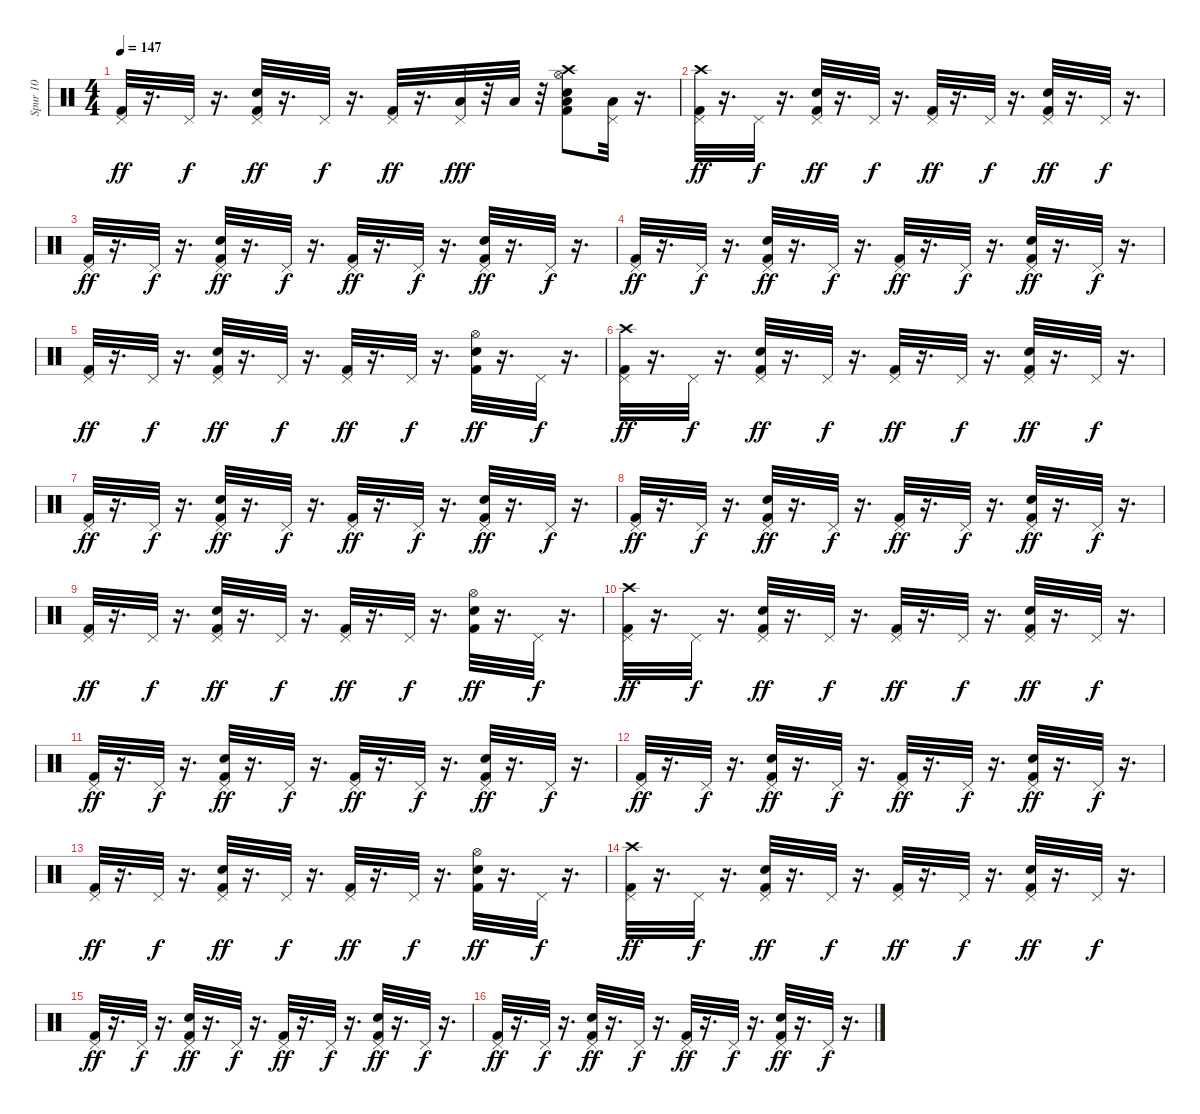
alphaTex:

\track ("Spur 10" "Spur 10") {instrument percussion}
\staff {score}
\articulation defaults
\ts (4 4)
\tempo 147
\clef neutral
\ks c
("Pedal Hi-Hat (hit)" "Kick (hit) 2").32{dy ff} r.16{d} "Pedal Hi-Hat (hit)".32{dy f} r.16{d} ("Snare (hit) 2" "Kick (hit) 2" "Pedal Hi-Hat (hit)").32{dy ff} r.16{d} "Pedal Hi-Hat (hit)".32{dy f} r.16{d} ("Kick (hit) 2" "Pedal Hi-Hat (hit)").32{dy ff} r.16{d} ("Low Tom (hit)" "Pedal Hi-Hat (hit)").32{dy fff} r.32 "Low Tom (hit)".32 r.32 ("Low Tom (hit)" "Snare (hit) 2" "Hi-Hat (open)" "Kick (hit) 2" "Crash high (hit)").8 ("Low Floor Tom (hit)" "Pedal Hi-Hat (hit)").32 r.16{d} |
("Pedal Hi-Hat (hit)" "Kick (hit) 2" "Crash high (hit)").32{dy ff} r.16{d} "Pedal Hi-Hat (hit)".32{dy f} r.16{d} ("Snare (hit) 2" "Kick (hit) 2" "Pedal Hi-Hat (hit)").32{dy ff} r.16{d} "Pedal Hi-Hat (hit)".32{dy f} r.16{d} ("Kick (hit) 2" "Pedal Hi-Hat (hit)").32{dy ff} r.16{d} "Pedal Hi-Hat (hit)".32{dy f} r.16{d} ("Snare (hit) 2" "Pedal Hi-Hat (hit)" "Kick (hit) 2").32{dy ff} r.16{d} "Pedal Hi-Hat (hit)".32{dy f} r.16{d} |
("Pedal Hi-Hat (hit)" "Kick (hit) 2").32{dy ff} r.16{d} "Pedal Hi-Hat (hit)".32{dy f} r.16{d} ("Snare (hit) 2" "Kick (hit) 2" "Pedal Hi-Hat (hit)").32{dy ff} r.16{d} "Pedal Hi-Hat (hit)".32{dy f} r.16{d} ("Kick (hit) 2" "Pedal Hi-Hat (hit)").32{dy ff} r.16{d} "Pedal Hi-Hat (hit)".32{dy f} r.16{d} ("Snare (hit) 2" "Pedal Hi-Hat (hit)" "Kick (hit) 2").32{dy ff} r.16{d} "Pedal Hi-Hat (hit)".32{dy f} r.16{d} |
("Pedal Hi-Hat (hit)" "Kick (hit) 2").32{dy ff} r.16{d} "Pedal Hi-Hat (hit)".32{dy f} r.16{d} ("Snare (hit) 2" "Kick (hit) 2" "Pedal Hi-Hat (hit)").32{dy ff} r.16{d} "Pedal Hi-Hat (hit)".32{dy f} r.16{d} ("Kick (hit) 2" "Pedal Hi-Hat (hit)").32{dy ff} r.16{d} "Pedal Hi-Hat (hit)".32{dy f} r.16{d} ("Snare (hit) 2" "Pedal Hi-Hat (hit)" "Kick (hit) 2").32{dy ff} r.16{d} "Pedal Hi-Hat (hit)".32{dy f} r.16{d} |
("Pedal Hi-Hat (hit)" "Kick (hit) 2").32{dy ff} r.16{d} "Pedal Hi-Hat (hit)".32{dy f} r.16{d} ("Snare (hit) 2" "Kick (hit) 2" "Pedal Hi-Hat (hit)").32{dy ff} r.16{d} "Pedal Hi-Hat (hit)".32{dy f} r.16{d} ("Kick (hit) 2" "Pedal Hi-Hat (hit)").32{dy ff} r.16{d} "Pedal Hi-Hat (hit)".32{dy f} r.16{d} ("Snare (hit) 2" "Hi-Hat (open)" "Kick (hit) 2").32{dy ff} r.16{d} "Pedal Hi-Hat (hit)".32{dy f} r.16{d} |
("Pedal Hi-Hat (hit)" "Kick (hit) 2" "Crash high (hit)").32{dy ff} r.16{d} "Pedal Hi-Hat (hit)".32{dy f} r.16{d} ("Snare (hit) 2" "Kick (hit) 2" "Pedal Hi-Hat (hit)").32{dy ff} r.16{d} "Pedal Hi-Hat (hit)".32{dy f} r.16{d} ("Kick (hit) 2" "Pedal Hi-Hat (hit)").32{dy ff} r.16{d} "Pedal Hi-Hat (hit)".32{dy f} r.16{d} ("Snare (hit) 2" "Pedal Hi-Hat (hit)" "Kick (hit) 2").32{dy ff} r.16{d} "Pedal Hi-Hat (hit)".32{dy f} r.16{d} |
("Pedal Hi-Hat (hit)" "Kick (hit) 2").32{dy ff} r.16{d} "Pedal Hi-Hat (hit)".32{dy f} r.16{d} ("Snare (hit) 2" "Kick (hit) 2" "Pedal Hi-Hat (hit)").32{dy ff} r.16{d} "Pedal Hi-Hat (hit)".32{dy f} r.16{d} ("Kick (hit) 2" "Pedal Hi-Hat (hit)").32{dy ff} r.16{d} "Pedal Hi-Hat (hit)".32{dy f} r.16{d} ("Snare (hit) 2" "Pedal Hi-Hat (hit)" "Kick (hit) 2").32{dy ff} r.16{d} "Pedal Hi-Hat (hit)".32{dy f} r.16{d} |
("Pedal Hi-Hat (hit)" "Kick (hit) 2").32{dy ff} r.16{d} "Pedal Hi-Hat (hit)".32{dy f} r.16{d} ("Snare (hit) 2" "Kick (hit) 2" "Pedal Hi-Hat (hit)").32{dy ff} r.16{d} "Pedal Hi-Hat (hit)".32{dy f} r.16{d} ("Kick (hit) 2" "Pedal Hi-Hat (hit)").32{dy ff} r.16{d} "Pedal Hi-Hat (hit)".32{dy f} r.16{d} ("Snare (hit) 2" "Pedal Hi-Hat (hit)" "Kick (hit) 2").32{dy ff} r.16{d} "Pedal Hi-Hat (hit)".32{dy f} r.16{d} |
("Pedal Hi-Hat (hit)" "Kick (hit) 2").32{dy ff} r.16{d} "Pedal Hi-Hat (hit)".32{dy f} r.16{d} ("Snare (hit) 2" "Kick (hit) 2" "Pedal Hi-Hat (hit)").32{dy ff} r.16{d} "Pedal Hi-Hat (hit)".32{dy f} r.16{d} ("Kick (hit) 2" "Pedal Hi-Hat (hit)").32{dy ff} r.16{d} "Pedal Hi-Hat (hit)".32{dy f} r.16{d} ("Snare (hit) 2" "Hi-Hat (open)" "Kick (hit) 2").32{dy ff} r.16{d} "Pedal Hi-Hat (hit)".32{dy f} r.16{d} |
("Pedal Hi-Hat (hit)" "Kick (hit) 2" "Crash high (hit)").32{dy ff} r.16{d} "Pedal Hi-Hat (hit)".32{dy f} r.16{d} ("Snare (hit) 2" "Kick (hit) 2" "Pedal Hi-Hat (hit)").32{dy ff} r.16{d} "Pedal Hi-Hat (hit)".32{dy f} r.16{d} ("Kick (hit) 2" "Pedal Hi-Hat (hit)").32{dy ff} r.16{d} "Pedal Hi-Hat (hit)".32{dy f} r.16{d} ("Snare (hit) 2" "Pedal Hi-Hat (hit)" "Kick (hit) 2").32{dy ff} r.16{d} "Pedal Hi-Hat (hit)".32{dy f} r.16{d} |
("Pedal Hi-Hat (hit)" "Kick (hit) 2").32{dy ff} r.16{d} "Pedal Hi-Hat (hit)".32{dy f} r.16{d} ("Snare (hit) 2" "Kick (hit) 2" "Pedal Hi-Hat (hit)").32{dy ff} r.16{d} "Pedal Hi-Hat (hit)".32{dy f} r.16{d} ("Kick (hit) 2" "Pedal Hi-Hat (hit)").32{dy ff} r.16{d} "Pedal Hi-Hat (hit)".32{dy f} r.16{d} ("Snare (hit) 2" "Pedal Hi-Hat (hit)" "Kick (hit) 2").32{dy ff} r.16{d} "Pedal Hi-Hat (hit)".32{dy f} r.16{d} |
("Pedal Hi-Hat (hit)" "Kick (hit) 2").32{dy ff} r.16{d} "Pedal Hi-Hat (hit)".32{dy f} r.16{d} ("Snare (hit) 2" "Kick (hit) 2" "Pedal Hi-Hat (hit)").32{dy ff} r.16{d} "Pedal Hi-Hat (hit)".32{dy f} r.16{d} ("Kick (hit) 2" "Pedal Hi-Hat (hit)").32{dy ff} r.16{d} "Pedal Hi-Hat (hit)".32{dy f} r.16{d} ("Snare (hit) 2" "Pedal Hi-Hat (hit)" "Kick (hit) 2").32{dy ff} r.16{d} "Pedal Hi-Hat (hit)".32{dy f} r.16{d} |
("Pedal Hi-Hat (hit)" "Kick (hit) 2").32{dy ff} r.16{d} "Pedal Hi-Hat (hit)".32{dy f} r.16{d} ("Snare (hit) 2" "Kick (hit) 2" "Pedal Hi-Hat (hit)").32{dy ff} r.16{d} "Pedal Hi-Hat (hit)".32{dy f} r.16{d} ("Kick (hit) 2" "Pedal Hi-Hat (hit)").32{dy ff} r.16{d} "Pedal Hi-Hat (hit)".32{dy f} r.16{d} ("Snare (hit) 2" "Hi-Hat (open)" "Kick (hit) 2").32{dy ff} r.16{d} "Pedal Hi-Hat (hit)".32{dy f} r.16{d} |
("Pedal Hi-Hat (hit)" "Kick (hit) 2" "Crash high (hit)").32{dy ff} r.16{d} "Pedal Hi-Hat (hit)".32{dy f} r.16{d} ("Snare (hit) 2" "Kick (hit) 2" "Pedal Hi-Hat (hit)").32{dy ff} r.16{d} "Pedal Hi-Hat (hit)".32{dy f} r.16{d} ("Kick (hit) 2" "Pedal Hi-Hat (hit)").32{dy ff} r.16{d} "Pedal Hi-Hat (hit)".32{dy f} r.16{d} ("Snare (hit) 2" "Pedal Hi-Hat (hit)" "Kick (hit) 2").32{dy ff} r.16{d} "Pedal Hi-Hat (hit)".32{dy f} r.16{d} |
("Pedal Hi-Hat (hit)" "Kick (hit) 2").32{dy ff} r.16{d} "Pedal Hi-Hat (hit)".32{dy f} r.16{d} ("Snare (hit) 2" "Kick (hit) 2" "Pedal Hi-Hat (hit)").32{dy ff} r.16{d} "Pedal Hi-Hat (hit)".32{dy f} r.16{d} ("Kick (hit) 2" "Pedal Hi-Hat (hit)").32{dy ff} r.16{d} "Pedal Hi-Hat (hit)".32{dy f} r.16{d} ("Snare (hit) 2" "Pedal Hi-Hat (hit)" "Kick (hit) 2").32{dy ff} r.16{d} "Pedal Hi-Hat (hit)".32{dy f} r.16{d} |
("Pedal Hi-Hat (hit)" "Kick (hit) 2").32{dy ff} r.16{d} "Pedal Hi-Hat (hit)".32{dy f} r.16{d} ("Snare (hit) 2" "Kick (hit) 2" "Pedal Hi-Hat (hit)").32{dy ff} r.16{d} "Pedal Hi-Hat (hit)".32{dy f} r.16{d} ("Kick (hit) 2" "Pedal Hi-Hat (hit)").32{dy ff} r.16{d} "Pedal Hi-Hat (hit)".32{dy f} r.16{d} ("Snare (hit) 2" "Pedal Hi-Hat (hit)" "Kick (hit) 2").32{dy ff} r.16{d} "Pedal Hi-Hat (hit)".32{dy f} r.16{d}
